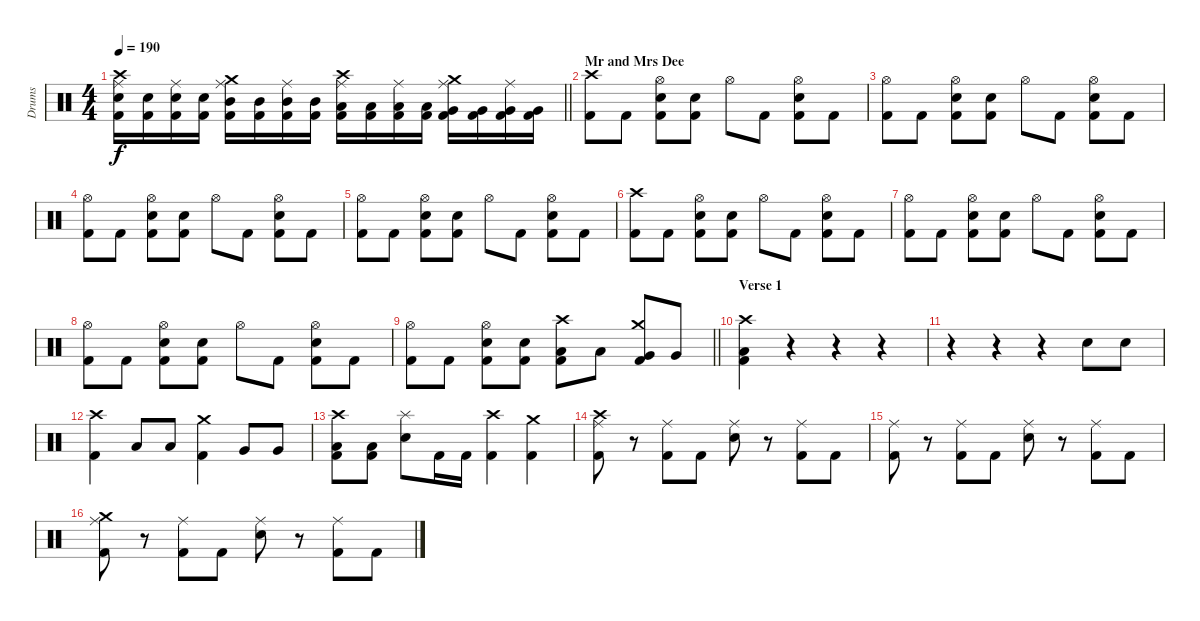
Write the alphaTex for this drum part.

\track ("Drums" "Drums") {instrument percussion}
\staff {score}
\articulation defaults
\ts (4 4)
\tempo 190
\clef neutral
\barLineRight lightlight
\ks c
("Crash high (hit)" "Ride (middle)" "Snare (hit) 2" "Kick (hit) 2").16{dy f} ("Snare (hit) 2" "Kick (hit) 2").16 ("Ride (middle)" "Snare (hit) 2" "Kick (hit) 2").16 ("Snare (hit) 2" "Kick (hit) 2").16 ("Crash medium (hit)" "Ride (middle)" "Mid Tom (hit)" "Kick (hit) 2").16 ("Mid Tom (hit)" "Kick (hit) 2").16 ("Ride (middle)" "Mid Tom (hit)" "Kick (hit) 2").16 ("Mid Tom (hit)" "Kick (hit) 2").16 ("Crash high (hit)" "Ride (middle)" "Low Tom (hit)" "Kick (hit) 2").16 ("Low Tom (hit)" "Kick (hit) 2").16 ("Ride (middle)" "Low Tom (hit)" "Kick (hit) 2").16 ("Low Tom (hit)" "Kick (hit) 2").16 ("Crash medium (hit)" "Ride (middle)" "Very Low Tom (hit)" "Kick (hit) 2").16 ("Very Low Tom (hit)" "Kick (hit) 2").16 ("Ride (middle)" "Very Low Tom (hit)" "Kick (hit) 2").16 ("Very Low Tom (hit)" "Kick (hit) 2").16 |
\section ("" "Mr and Mrs Dee")
("Crash high (hit)" "Kick (hit) 2").8 "Kick (hit) 2".8 ("Hi-Hat (open)" "Snare (hit) 2" "Kick (hit) 2").8 ("Snare (hit) 2" "Kick (hit) 2").8 "Hi-Hat (open)".8 "Kick (hit) 2".8 ("Hi-Hat (open)" "Snare (hit) 2" "Kick (hit) 2").8 "Kick (hit) 2".8 |
("Hi-Hat (open)" "Kick (hit) 2").8 "Kick (hit) 2".8 ("Hi-Hat (open)" "Snare (hit) 2" "Kick (hit) 2").8 ("Snare (hit) 2" "Kick (hit) 2").8 "Hi-Hat (open)".8 "Kick (hit) 2".8 ("Hi-Hat (open)" "Snare (hit) 2" "Kick (hit) 2").8 "Kick (hit) 2".8 |
("Hi-Hat (open)" "Kick (hit) 2").8 "Kick (hit) 2".8 ("Hi-Hat (open)" "Snare (hit) 2" "Kick (hit) 2").8 ("Snare (hit) 2" "Kick (hit) 2").8 "Hi-Hat (open)".8 "Kick (hit) 2".8 ("Hi-Hat (open)" "Snare (hit) 2" "Kick (hit) 2").8 "Kick (hit) 2".8 |
("Hi-Hat (open)" "Kick (hit) 2").8 "Kick (hit) 2".8 ("Hi-Hat (open)" "Snare (hit) 2" "Kick (hit) 2").8 ("Snare (hit) 2" "Kick (hit) 2").8 "Hi-Hat (open)".8 "Kick (hit) 2".8 ("Hi-Hat (open)" "Snare (hit) 2" "Kick (hit) 2").8 "Kick (hit) 2".8 |
("Crash high (hit)" "Kick (hit) 2").8 "Kick (hit) 2".8 ("Hi-Hat (open)" "Snare (hit) 2" "Kick (hit) 2").8 ("Snare (hit) 2" "Kick (hit) 2").8 "Hi-Hat (open)".8 "Kick (hit) 2".8 ("Hi-Hat (open)" "Snare (hit) 2" "Kick (hit) 2").8 "Kick (hit) 2".8 |
("Hi-Hat (open)" "Kick (hit) 2").8 "Kick (hit) 2".8 ("Hi-Hat (open)" "Snare (hit) 2" "Kick (hit) 2").8 ("Snare (hit) 2" "Kick (hit) 2").8 "Hi-Hat (open)".8 "Kick (hit) 2".8 ("Hi-Hat (open)" "Snare (hit) 2" "Kick (hit) 2").8 "Kick (hit) 2".8 |
("Hi-Hat (open)" "Kick (hit) 2").8 "Kick (hit) 2".8 ("Hi-Hat (open)" "Snare (hit) 2" "Kick (hit) 2").8 ("Snare (hit) 2" "Kick (hit) 2").8 "Hi-Hat (open)".8 "Kick (hit) 2".8 ("Hi-Hat (open)" "Snare (hit) 2" "Kick (hit) 2").8 "Kick (hit) 2".8 |
\barLineRight lightlight
("Hi-Hat (open)" "Kick (hit) 2").8 "Kick (hit) 2".8 ("Hi-Hat (open)" "Snare (hit) 2" "Kick (hit) 2").8 ("Snare (hit) 2" "Kick (hit) 2").8 ("Crash high (hit)" "Low Tom (hit)" "Kick (hit) 2").8 "Low Tom (hit)".8 ("Crash medium (hit)" "Very Low Tom (hit)" "Kick (hit) 2").8 "Very Low Tom (hit)".8 |
\section ("" "Verse 1")
("Crash high (hit)" "Low Floor Tom (hit)" "Kick (hit) 2").4 r.4 r.4 r.4 |
r.4 r.4 r.4 "Snare (hit) 2".8 "Snare (hit) 2".8 |
("Crash high (hit)" "Kick (hit) 2").4 "Low Tom (hit)".8 "Low Tom (hit)".8 ("Crash medium (hit)" "Kick (hit) 2").4 "Very Low Tom (hit)".8 "Very Low Tom (hit)".8 |
("Crash high (hit)" "Low Floor Tom (hit)" "Kick (hit) 2").8 ("Low Floor Tom (hit)" "Kick (hit) 2").8 ("Splash (hit)" "Snare (hit) 2").8 "Kick (hit) 2".16 "Kick (hit) 2".16 ("Crash high (hit)" "Kick (hit) 2").4 ("Crash medium (hit)" "Kick (hit) 2").4 |
("Crash high (hit)" "Ride (middle)" "Kick (hit) 2").8 r.8 ("Ride (middle)" "Kick (hit) 2").8 "Kick (hit) 2".8 ("Ride (middle)" "Snare (hit) 2").8 r.8 ("Ride (middle)" "Kick (hit) 2").8 "Kick (hit) 2".8 |
("Ride (middle)" "Kick (hit) 2").8 r.8 ("Ride (middle)" "Kick (hit) 2").8 "Kick (hit) 2".8 ("Ride (middle)" "Snare (hit) 2").8 r.8 ("Ride (middle)" "Kick (hit) 2").8 "Kick (hit) 2".8 |
("Crash medium (hit)" "Ride (middle)" "Kick (hit) 2").8 r.8 ("Ride (middle)" "Kick (hit) 2").8 "Kick (hit) 2".8 ("Ride (middle)" "Snare (hit) 2").8 r.8 ("Ride (middle)" "Kick (hit) 2").8 "Kick (hit) 2".8
